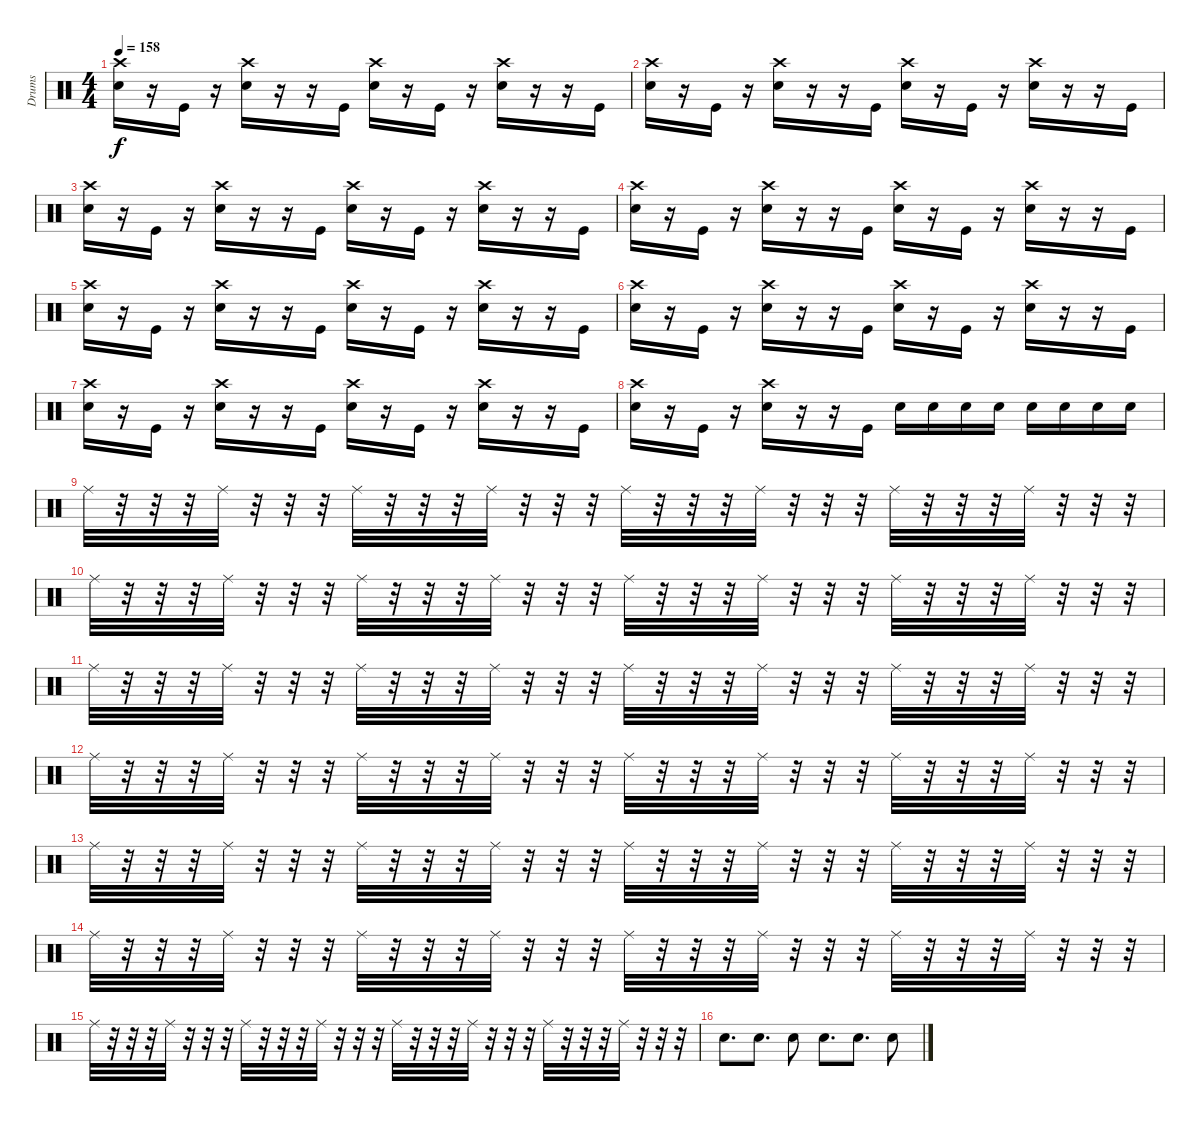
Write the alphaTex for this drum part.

\track ("Drums" "Drums") {instrument percussion}
\staff {score}
\articulation defaults
\ts (4 4)
\tempo 158
\clef neutral
\ks c
("Crash high (hit)" "Snare (hit) 2").16{dy f} r.16 "Kick (hit)".16 r.16 ("Crash high (hit)" "Snare (hit) 2").16 r.16 r.16 "Kick (hit)".16 ("Crash high (hit)" "Snare (hit) 2").16 r.16 "Kick (hit)".16 r.16 ("Crash high (hit)" "Snare (hit) 2").16 r.16 r.16 "Kick (hit)".16 |
("Crash high (hit)" "Snare (hit) 2").16 r.16 "Kick (hit)".16 r.16 ("Crash high (hit)" "Snare (hit) 2").16 r.16 r.16 "Kick (hit)".16 ("Crash high (hit)" "Snare (hit) 2").16 r.16 "Kick (hit)".16 r.16 ("Crash high (hit)" "Snare (hit) 2").16 r.16 r.16 "Kick (hit)".16 |
("Crash high (hit)" "Snare (hit) 2").16 r.16 "Kick (hit)".16 r.16 ("Crash high (hit)" "Snare (hit) 2").16 r.16 r.16 "Kick (hit)".16 ("Crash high (hit)" "Snare (hit) 2").16 r.16 "Kick (hit)".16 r.16 ("Crash high (hit)" "Snare (hit) 2").16 r.16 r.16 "Kick (hit)".16 |
("Crash high (hit)" "Snare (hit) 2").16 r.16 "Kick (hit)".16 r.16 ("Crash high (hit)" "Snare (hit) 2").16 r.16 r.16 "Kick (hit)".16 ("Crash high (hit)" "Snare (hit) 2").16 r.16 "Kick (hit)".16 r.16 ("Crash high (hit)" "Snare (hit) 2").16 r.16 r.16 "Kick (hit)".16 |
("Crash high (hit)" "Snare (hit) 2").16 r.16 "Kick (hit)".16 r.16 ("Crash high (hit)" "Snare (hit) 2").16 r.16 r.16 "Kick (hit)".16 ("Crash high (hit)" "Snare (hit) 2").16 r.16 "Kick (hit)".16 r.16 ("Crash high (hit)" "Snare (hit) 2").16 r.16 r.16 "Kick (hit)".16 |
("Crash high (hit)" "Snare (hit) 2").16 r.16 "Kick (hit)".16 r.16 ("Crash high (hit)" "Snare (hit) 2").16 r.16 r.16 "Kick (hit)".16 ("Crash high (hit)" "Snare (hit) 2").16 r.16 "Kick (hit)".16 r.16 ("Crash high (hit)" "Snare (hit) 2").16 r.16 r.16 "Kick (hit)".16 |
("Crash high (hit)" "Snare (hit) 2").16 r.16 "Kick (hit)".16 r.16 ("Crash high (hit)" "Snare (hit) 2").16 r.16 r.16 "Kick (hit)".16 ("Crash high (hit)" "Snare (hit) 2").16 r.16 "Kick (hit)".16 r.16 ("Crash high (hit)" "Snare (hit) 2").16 r.16 r.16 "Kick (hit)".16 |
("Crash high (hit)" "Snare (hit) 2").16 r.16 "Kick (hit)".16 r.16 ("Crash high (hit)" "Snare (hit) 2").16 r.16 r.16 "Kick (hit)".16 "Snare (hit) 2".16 "Snare (hit) 2".16 "Snare (hit) 2".16 "Snare (hit) 2".16 "Snare (hit) 2".16 "Snare (hit) 2".16 "Snare (hit) 2".16 "Snare (hit) 2".16 |
"Ride (middle)".32 r.32 r.32 r.32 "Ride (middle)".32 r.32 r.32 r.32 "Ride (middle)".32 r.32 r.32 r.32 "Ride (middle)".32 r.32 r.32 r.32 "Ride (middle)".32 r.32 r.32 r.32 "Ride (middle)".32 r.32 r.32 r.32 "Ride (middle)".32 r.32 r.32 r.32 "Ride (middle)".32 r.32 r.32 r.32 |
"Ride (middle)".32 r.32 r.32 r.32 "Ride (middle)".32 r.32 r.32 r.32 "Ride (middle)".32 r.32 r.32 r.32 "Ride (middle)".32 r.32 r.32 r.32 "Ride (middle)".32 r.32 r.32 r.32 "Ride (middle)".32 r.32 r.32 r.32 "Ride (middle)".32 r.32 r.32 r.32 "Ride (middle)".32 r.32 r.32 r.32 |
"Ride (middle)".32 r.32 r.32 r.32 "Ride (middle)".32 r.32 r.32 r.32 "Ride (middle)".32 r.32 r.32 r.32 "Ride (middle)".32 r.32 r.32 r.32 "Ride (middle)".32 r.32 r.32 r.32 "Ride (middle)".32 r.32 r.32 r.32 "Ride (middle)".32 r.32 r.32 r.32 "Ride (middle)".32 r.32 r.32 r.32 |
"Ride (middle)".32 r.32 r.32 r.32 "Ride (middle)".32 r.32 r.32 r.32 "Ride (middle)".32 r.32 r.32 r.32 "Ride (middle)".32 r.32 r.32 r.32 "Ride (middle)".32 r.32 r.32 r.32 "Ride (middle)".32 r.32 r.32 r.32 "Ride (middle)".32 r.32 r.32 r.32 "Ride (middle)".32 r.32 r.32 r.32 |
"Ride (middle)".32 r.32 r.32 r.32 "Ride (middle)".32 r.32 r.32 r.32 "Ride (middle)".32 r.32 r.32 r.32 "Ride (middle)".32 r.32 r.32 r.32 "Ride (middle)".32 r.32 r.32 r.32 "Ride (middle)".32 r.32 r.32 r.32 "Ride (middle)".32 r.32 r.32 r.32 "Ride (middle)".32 r.32 r.32 r.32 |
"Ride (middle)".32 r.32 r.32 r.32 "Ride (middle)".32 r.32 r.32 r.32 "Ride (middle)".32 r.32 r.32 r.32 "Ride (middle)".32 r.32 r.32 r.32 "Ride (middle)".32 r.32 r.32 r.32 "Ride (middle)".32 r.32 r.32 r.32 "Ride (middle)".32 r.32 r.32 r.32 "Ride (middle)".32 r.32 r.32 r.32 |
"Ride (middle)".32 r.32 r.32 r.32 "Ride (middle)".32 r.32 r.32 r.32 "Ride (middle)".32 r.32 r.32 r.32 "Ride (middle)".32 r.32 r.32 r.32 "Ride (middle)".32 r.32 r.32 r.32 "Ride (middle)".32 r.32 r.32 r.32 "Ride (middle)".32 r.32 r.32 r.32 "Ride (middle)".32 r.32 r.32 r.32 |
"Snare (hit) 2".8{d} "Snare (hit) 2".8{d} "Snare (hit) 2".8 "Snare (hit) 2".8{d} "Snare (hit) 2".8{d} "Snare (hit) 2".8
